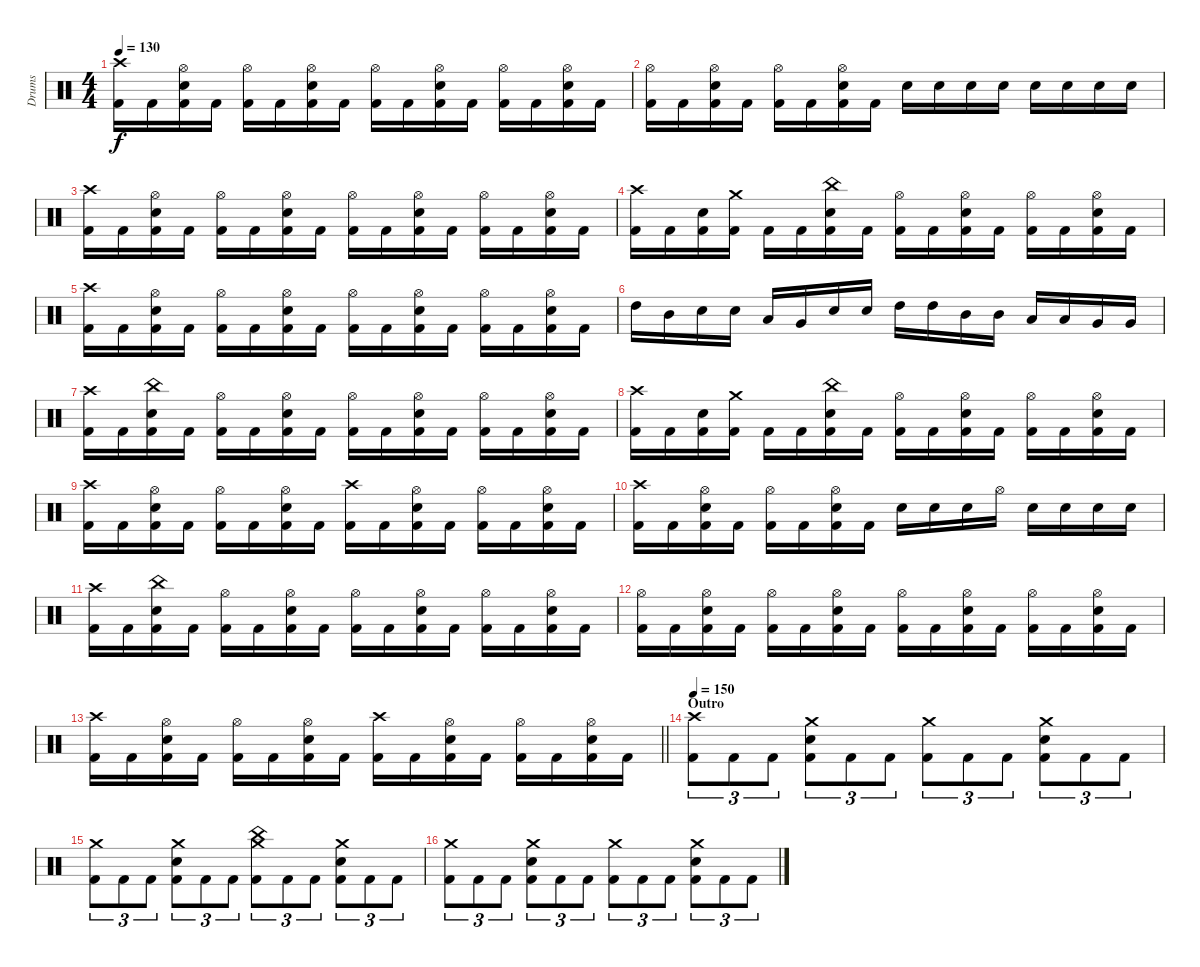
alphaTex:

\track ("Drums" "Drums") {instrument percussion}
\staff {score}
\articulation defaults
\ts (4 4)
\tempo 130
\clef neutral
\ks c
("Crash high (hit)" "Kick (hit) 2").16{dy f} "Kick (hit) 2".16 ("Hi-Hat (open)" "Electric Snare (hit)" "Kick (hit) 2").16 "Kick (hit) 2".16 ("Hi-Hat (open)" "Kick (hit) 2").16 "Kick (hit) 2".16 ("Hi-Hat (open)" "Electric Snare (hit)" "Kick (hit) 2").16 "Kick (hit) 2".16 ("Hi-Hat (open)" "Kick (hit) 2").16 "Kick (hit) 2".16 ("Hi-Hat (open)" "Electric Snare (hit)" "Kick (hit) 2").16 "Kick (hit) 2".16 ("Hi-Hat (open)" "Kick (hit) 2").16 "Kick (hit) 2".16 ("Hi-Hat (open)" "Electric Snare (hit)" "Kick (hit) 2").16 "Kick (hit) 2".16 |
("Hi-Hat (open)" "Kick (hit) 2").16 "Kick (hit) 2".16 ("Hi-Hat (open)" "Electric Snare (hit)" "Kick (hit) 2").16 "Kick (hit) 2".16 ("Hi-Hat (open)" "Kick (hit) 2").16 "Kick (hit) 2".16 ("Hi-Hat (open)" "Electric Snare (hit)" "Kick (hit) 2").16 "Kick (hit) 2".16 "Electric Snare (hit)".16 "Electric Snare (hit)".16 "Electric Snare (hit)".16 "Electric Snare (hit)".16 "Electric Snare (hit)".16 "Electric Snare (hit)".16 "Electric Snare (hit)".16 "Electric Snare (hit)".16 |
("Crash high (hit)" "Kick (hit) 2").16 "Kick (hit) 2".16 ("Hi-Hat (open)" "Electric Snare (hit)" "Kick (hit) 2").16 "Kick (hit) 2".16 ("Hi-Hat (open)" "Kick (hit) 2").16 "Kick (hit) 2".16 ("Hi-Hat (open)" "Electric Snare (hit)" "Kick (hit) 2").16 "Kick (hit) 2".16 ("Hi-Hat (open)" "Kick (hit) 2").16 "Kick (hit) 2".16 ("Hi-Hat (open)" "Electric Snare (hit)" "Kick (hit) 2").16 "Kick (hit) 2".16 ("Hi-Hat (open)" "Kick (hit) 2").16 "Kick (hit) 2".16 ("Hi-Hat (open)" "Electric Snare (hit)" "Kick (hit) 2").16 "Kick (hit) 2".16 |
("Crash high (hit)" "Kick (hit) 2").16 "Kick (hit) 2".16 ("Electric Snare (hit)" "Kick (hit) 2").16 ("Crash medium (hit)" "Kick (hit) 2").16 "Kick (hit) 2".16 "Kick (hit) 2".16 ("China (hit)" "Electric Snare (hit)" "Kick (hit) 2").16 "Kick (hit) 2".16 ("Hi-Hat (open)" "Kick (hit) 2").16 "Kick (hit) 2".16 ("Hi-Hat (open)" "Electric Snare (hit)" "Kick (hit) 2").16 "Kick (hit) 2".16 ("Hi-Hat (open)" "Kick (hit) 2").16 "Kick (hit) 2".16 ("Hi-Hat (open)" "Electric Snare (hit)" "Kick (hit) 2").16 "Kick (hit) 2".16 |
("Crash high (hit)" "Kick (hit) 2").16 "Kick (hit) 2".16 ("Hi-Hat (open)" "Electric Snare (hit)" "Kick (hit) 2").16 "Kick (hit) 2".16 ("Hi-Hat (open)" "Kick (hit) 2").16 "Kick (hit) 2".16 ("Hi-Hat (open)" "Electric Snare (hit)" "Kick (hit) 2").16 "Kick (hit) 2".16 ("Hi-Hat (open)" "Kick (hit) 2").16 "Kick (hit) 2".16 ("Hi-Hat (open)" "Electric Snare (hit)" "Kick (hit) 2").16 "Kick (hit) 2".16 ("Hi-Hat (open)" "Kick (hit) 2").16 "Kick (hit) 2".16 ("Hi-Hat (open)" "Electric Snare (hit)" "Kick (hit) 2").16 "Kick (hit) 2".16 |
"High Tom (hit)".16 "Mid Tom (hit)".16 "Electric Snare (hit)".16 "Electric Snare (hit)".16 "Low Tom (hit)".16 "Very Low Tom (hit)".16 "Electric Snare (hit)".16 "Electric Snare (hit)".16 "High Tom (hit)".16 "High Tom (hit)".16 "Mid Tom (hit)".16 "Mid Tom (hit)".16 "Low Tom (hit)".16 "Low Tom (hit)".16 "Very Low Tom (hit)".16 "Very Low Tom (hit)".16 |
("Crash high (hit)" "Kick (hit) 2").16 "Kick (hit) 2".16 ("China (hit)" "Electric Snare (hit)" "Kick (hit) 2").16 "Kick (hit) 2".16 ("Hi-Hat (open)" "Kick (hit) 2").16 "Kick (hit) 2".16 ("Hi-Hat (open)" "Electric Snare (hit)" "Kick (hit) 2").16 "Kick (hit) 2".16 ("Hi-Hat (open)" "Kick (hit) 2").16 "Kick (hit) 2".16 ("Hi-Hat (open)" "Electric Snare (hit)" "Kick (hit) 2").16 "Kick (hit) 2".16 ("Hi-Hat (open)" "Kick (hit) 2").16 "Kick (hit) 2".16 ("Hi-Hat (open)" "Electric Snare (hit)" "Kick (hit) 2").16 "Kick (hit) 2".16 |
("Crash high (hit)" "Kick (hit) 2").16 "Kick (hit) 2".16 ("Electric Snare (hit)" "Kick (hit) 2").16 ("Crash medium (hit)" "Kick (hit) 2").16 "Kick (hit) 2".16 "Kick (hit) 2".16 ("China (hit)" "Electric Snare (hit)" "Kick (hit) 2").16 "Kick (hit) 2".16 ("Hi-Hat (open)" "Kick (hit) 2").16 "Kick (hit) 2".16 ("Hi-Hat (open)" "Electric Snare (hit)" "Kick (hit) 2").16 "Kick (hit) 2".16 ("Hi-Hat (open)" "Kick (hit) 2").16 "Kick (hit) 2".16 ("Hi-Hat (open)" "Electric Snare (hit)" "Kick (hit) 2").16 "Kick (hit) 2".16 |
("Crash high (hit)" "Kick (hit) 2").16 "Kick (hit) 2".16 ("Hi-Hat (open)" "Electric Snare (hit)" "Kick (hit) 2").16 "Kick (hit) 2".16 ("Hi-Hat (open)" "Kick (hit) 2").16 "Kick (hit) 2".16 ("Hi-Hat (open)" "Electric Snare (hit)" "Kick (hit) 2").16 "Kick (hit) 2".16 ("Crash high (hit)" "Kick (hit) 2").16 "Kick (hit) 2".16 ("Hi-Hat (open)" "Electric Snare (hit)" "Kick (hit) 2").16 "Kick (hit) 2".16 ("Hi-Hat (open)" "Kick (hit) 2").16 "Kick (hit) 2".16 ("Hi-Hat (open)" "Electric Snare (hit)" "Kick (hit) 2").16 "Kick (hit) 2".16 |
("Crash high (hit)" "Kick (hit) 2").16 "Kick (hit) 2".16 ("Hi-Hat (open)" "Electric Snare (hit)" "Kick (hit) 2").16 "Kick (hit) 2".16 ("Hi-Hat (open)" "Kick (hit) 2").16 "Kick (hit) 2".16 ("Hi-Hat (open)" "Electric Snare (hit)" "Kick (hit) 2").16 "Kick (hit) 2".16 "Electric Snare (hit)".16 "Electric Snare (hit)".16 "Electric Snare (hit)".16 "Hi-Hat (open)".16 "Electric Snare (hit)".16 "Electric Snare (hit)".16 "Electric Snare (hit)".16 "Electric Snare (hit)".16 |
("Crash high (hit)" "Kick (hit) 2").16 "Kick (hit) 2".16 ("China (hit)" "Electric Snare (hit)" "Kick (hit) 2").16 "Kick (hit) 2".16 ("Hi-Hat (open)" "Kick (hit) 2").16 "Kick (hit) 2".16 ("Hi-Hat (open)" "Electric Snare (hit)" "Kick (hit) 2").16 "Kick (hit) 2".16 ("Hi-Hat (open)" "Kick (hit) 2").16 "Kick (hit) 2".16 ("Hi-Hat (open)" "Electric Snare (hit)" "Kick (hit) 2").16 "Kick (hit) 2".16 ("Hi-Hat (open)" "Kick (hit) 2").16 "Kick (hit) 2".16 ("Hi-Hat (open)" "Electric Snare (hit)" "Kick (hit) 2").16 "Kick (hit) 2".16 |
("Hi-Hat (open)" "Kick (hit) 2").16 "Kick (hit) 2".16 ("Hi-Hat (open)" "Electric Snare (hit)" "Kick (hit) 2").16 "Kick (hit) 2".16 ("Hi-Hat (open)" "Kick (hit) 2").16 "Kick (hit) 2".16 ("Hi-Hat (open)" "Electric Snare (hit)" "Kick (hit) 2").16 "Kick (hit) 2".16 ("Hi-Hat (open)" "Kick (hit) 2").16 "Kick (hit) 2".16 ("Hi-Hat (open)" "Electric Snare (hit)" "Kick (hit) 2").16 "Kick (hit) 2".16 ("Hi-Hat (open)" "Kick (hit) 2").16 "Kick (hit) 2".16 ("Hi-Hat (open)" "Electric Snare (hit)" "Kick (hit) 2").16 "Kick (hit) 2".16 |
\barLineRight lightlight
("Crash high (hit)" "Kick (hit) 2").16 "Kick (hit) 2".16 ("Hi-Hat (open)" "Electric Snare (hit)" "Kick (hit) 2").16 "Kick (hit) 2".16 ("Hi-Hat (open)" "Kick (hit) 2").16 "Kick (hit) 2".16 ("Hi-Hat (open)" "Electric Snare (hit)" "Kick (hit) 2").16 "Kick (hit) 2".16 ("Crash high (hit)" "Kick (hit) 2").16 "Kick (hit) 2".16 ("Hi-Hat (open)" "Electric Snare (hit)" "Kick (hit) 2").16 "Kick (hit) 2".16 ("Hi-Hat (open)" "Kick (hit) 2").16 "Kick (hit) 2".16 ("Hi-Hat (open)" "Electric Snare (hit)" "Kick (hit) 2").16 "Kick (hit) 2".16 |
\section ("" "Outro")
\tempo 150
("Crash high (hit)" "Kick (hit) 2").8{tu (3 2)} "Kick (hit) 2".8{tu (3 2)} "Kick (hit) 2".8{tu (3 2)} ("Crash medium (hit)" "Electric Snare (hit)" "Kick (hit) 2").8{tu (3 2)} "Kick (hit) 2".8{tu (3 2)} "Kick (hit) 2".8{tu (3 2)} ("Crash medium (hit)" "Kick (hit) 2").8{tu (3 2)} "Kick (hit) 2".8{tu (3 2)} "Kick (hit) 2".8{tu (3 2)} ("Crash medium (hit)" "Electric Snare (hit)" "Kick (hit) 2").8{tu (3 2)} "Kick (hit) 2".8{tu (3 2)} "Kick (hit) 2".8{tu (3 2)} |
("Crash medium (hit)" "Kick (hit) 2").8{tu (3 2)} "Kick (hit) 2".8{tu (3 2)} "Kick (hit) 2".8{tu (3 2)} ("Crash medium (hit)" "Electric Snare (hit)" "Kick (hit) 2").8{tu (3 2)} "Kick (hit) 2".8{tu (3 2)} "Kick (hit) 2".8{tu (3 2)} ("Crash medium (hit)" "China (hit)" "Kick (hit) 2").8{tu (3 2)} "Kick (hit) 2".8{tu (3 2)} "Kick (hit) 2".8{tu (3 2)} ("Crash medium (hit)" "Electric Snare (hit)" "Kick (hit) 2").8{tu (3 2)} "Kick (hit) 2".8{tu (3 2)} "Kick (hit) 2".8{tu (3 2)} |
("Crash medium (hit)" "Kick (hit) 2").8{tu (3 2)} "Kick (hit) 2".8{tu (3 2)} "Kick (hit) 2".8{tu (3 2)} ("Crash medium (hit)" "Electric Snare (hit)" "Kick (hit) 2").8{tu (3 2)} "Kick (hit) 2".8{tu (3 2)} "Kick (hit) 2".8{tu (3 2)} ("Crash medium (hit)" "Kick (hit) 2").8{tu (3 2)} "Kick (hit) 2".8{tu (3 2)} "Kick (hit) 2".8{tu (3 2)} ("Crash medium (hit)" "Electric Snare (hit)" "Kick (hit) 2").8{tu (3 2)} "Kick (hit) 2".8{tu (3 2)} "Kick (hit) 2".8{tu (3 2)}
